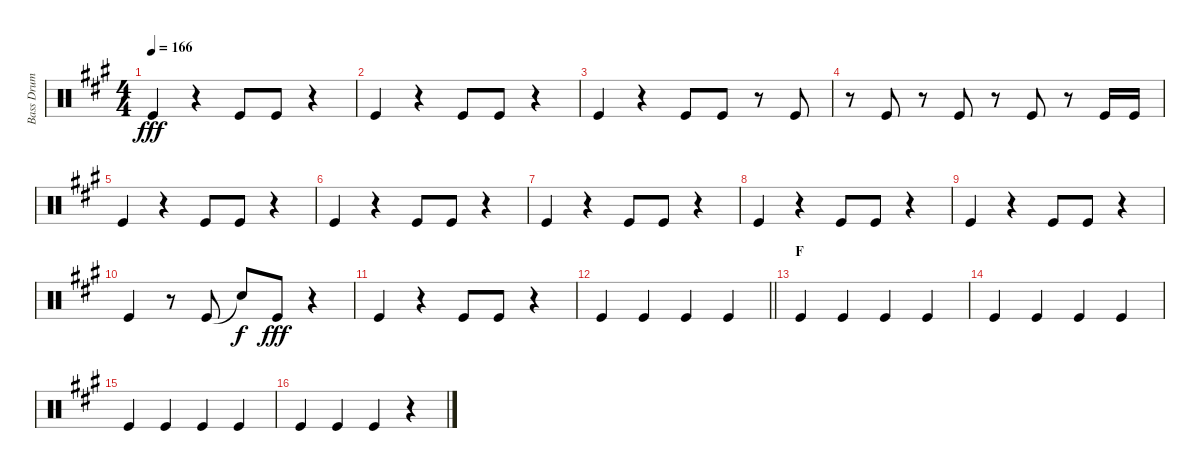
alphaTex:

\track ("Bass Drum" "Bass Drum") {instrument percussion}
\staff {score}
\articulation defaults
\ts (4 4)
\tempo 166
\clef neutral
\ks a "Kick (hit)".4{dy fff}
r.4 "Kick (hit)".8 "Kick (hit)".8 r.4 |
"Kick (hit)".4 r.4 "Kick (hit)".8 "Kick (hit)".8 r.4 |
"Kick (hit)".4 r.4 "Kick (hit)".8 "Kick (hit)".8 r.8 "Kick (hit)".8 |
r.8 "Kick (hit)".8 r.8 "Kick (hit)".8 r.8 "Kick (hit)".8 r.8 "Kick (hit)".16 "Kick (hit)".16 |
"Kick (hit)".4 r.4 "Kick (hit)".8 "Kick (hit)".8 r.4 |
"Kick (hit)".4 r.4 "Kick (hit)".8 "Kick (hit)".8 r.4 |
"Kick (hit)".4 r.4 "Kick (hit)".8 "Kick (hit)".8 r.4 |
"Kick (hit)".4 r.4 "Kick (hit)".8 "Kick (hit)".8 r.4 |
"Kick (hit)".4 r.4 "Kick (hit)".8 "Kick (hit)".8 r.4 |
"Kick (hit)".4 r.8 "Kick (hit)".8 "Snare (hit)"{t}.8{dy f} "Kick (hit)".8{dy fff} r.4 |
"Kick (hit)".4 r.4 "Kick (hit)".8 "Kick (hit)".8 r.4 |
\barLineRight lightlight "Kick (hit)".4 "Kick (hit)".4 "Kick (hit)".4 "Kick (hit)".4
|
\section ("" "F")
"Kick (hit)".4 "Kick (hit)".4 "Kick (hit)".4 "Kick (hit)".4 |
"Kick (hit)".4 "Kick (hit)".4 "Kick (hit)".4 "Kick (hit)".4 |
"Kick (hit)".4 "Kick (hit)".4 "Kick (hit)".4 "Kick (hit)".4 |
"Kick (hit)".4 "Kick (hit)".4 "Kick (hit)".4 r.4
